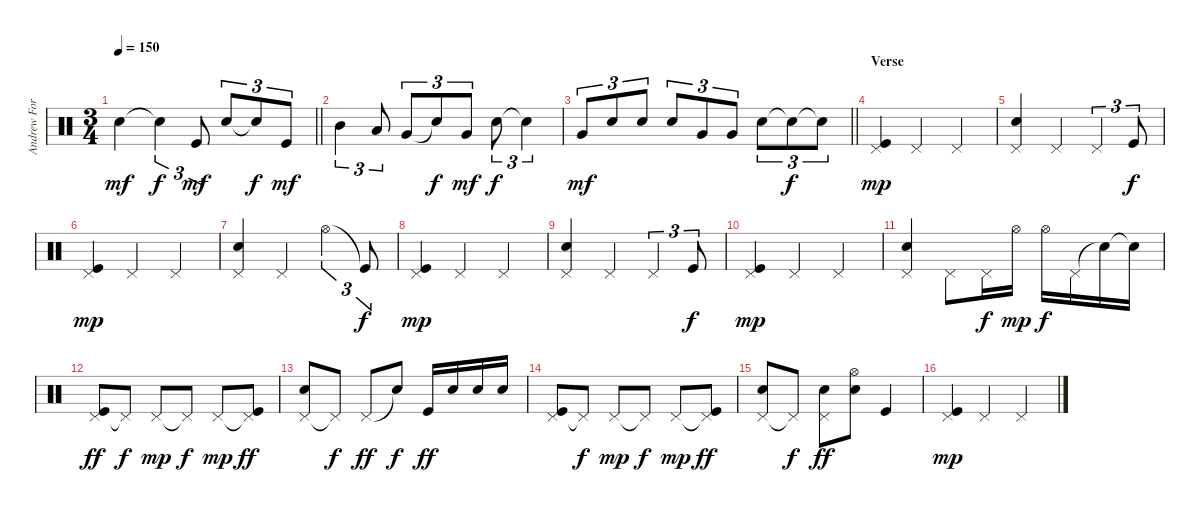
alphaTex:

\track ("Andrew Forsman" "Andrew For") {instrument percussion}
\staff {score}
\articulation defaults
\ts (3 4)
\tempo 150
\clef neutral
\barLineRight lightlight
\ks c "Electric Snare (hit)".4{dy mf} "Snare (hit)"{t}.4{tu (3 2) dy f} "Kick (hit)".8{tu (3 2) dy mf} "Electric Snare (hit)".8{tu (3 2)} "Snare (hit)"{t}.8{tu (3 2) dy f} "Kick (hit)".8{tu (3 2) dy mf}
|
"Mid Tom (hit)".4{tu (3 2)} "Low Tom (hit)".8{tu (3 2)} "Very Low Tom (hit)".8{tu (3 2)} "Snare (hit)"{t}.8{tu (3 2) dy f} "Very Low Tom (hit)".8{tu (3 2) dy mf} "Electric Snare (hit)".8{tu (3 2) dy f} "Snare (hit)"{t}.4{tu (3 2)} |
\barLineRight lightlight "Very Low Tom (hit)".8{tu (3 2) dy mf} "Electric Snare (hit)".8{tu (3 2)} "Electric Snare (hit)".8{tu (3 2)} "Electric Snare (hit)".8{tu (3 2)} "Very Low Tom (hit)".8{tu (3 2)} "Very Low Tom (hit)".8{tu (3 2)} "Electric Snare (hit)".8{tu (3 2)} "Snare (hit)"{t}.8{tu (3 2) dy f} "Snare (hit)"{t}.8{tu (3 2)}
|
\section ("" "Verse")
("Pedal Hi-Hat (hit)" "Kick (hit)").4{dy mp} "Pedal Hi-Hat (hit)".4 "Pedal Hi-Hat (hit)".4 |
("Pedal Hi-Hat (hit)" "Electric Snare (hit)").4 "Pedal Hi-Hat (hit)".4 "Pedal Hi-Hat (hit)".4{tu (3 2)} "Kick (hit)".8{tu (3 2) dy f} |
("Pedal Hi-Hat (hit)" "Kick (hit)").4{dy mp} "Pedal Hi-Hat (hit)".4 "Pedal Hi-Hat (hit)".4 |
("Pedal Hi-Hat (hit)" "Electric Snare (hit)").4 "Pedal Hi-Hat (hit)".4 "Hi-Hat (open)".4{tu (3 2)} "Kick (hit)"{t}.8{tu (3 2) dy f} |
("Pedal Hi-Hat (hit)" "Kick (hit)").4{dy mp} "Pedal Hi-Hat (hit)".4 "Pedal Hi-Hat (hit)".4 |
("Pedal Hi-Hat (hit)" "Electric Snare (hit)").4 "Pedal Hi-Hat (hit)".4 "Pedal Hi-Hat (hit)".4{tu (3 2)} "Kick (hit)".8{tu (3 2) dy f} |
("Pedal Hi-Hat (hit)" "Kick (hit)").4{dy mp} "Pedal Hi-Hat (hit)".4 "Pedal Hi-Hat (hit)".4 |
("Pedal Hi-Hat (hit)" "Electric Snare (hit)").4 "Pedal Hi-Hat (hit)".8 "Pedal Hi-Hat (hit)".16{dy f} "Hi-Hat (open)".16{dy mp} "Hi-Hat (open)".16{dy f} "Pedal Hi-Hat (hit)".16 "Snare (hit)"{t}.16 "Snare (hit)"{t}.16 |
("Pedal Hi-Hat (hit)" "Kick (hit)").8{dy ff} "Pedal Hi-Hat (hit)"{t}.8{dy f} "Pedal Hi-Hat (hit)".8{dy mp} "Pedal Hi-Hat (hit)"{t}.8{dy f} "Pedal Hi-Hat (hit)".8{dy mp} ("Pedal Hi-Hat (hit)"{t} "Kick (hit)").8{dy ff} |
("Pedal Hi-Hat (hit)" "Electric Snare (hit)").8 "Pedal Hi-Hat (hit)"{t}.8{dy f} "Pedal Hi-Hat (hit)".8{dy ff} "Snare (hit)"{t}.8{dy f} "Kick (hit)".16{dy ff} "Electric Snare (hit)".16 "Electric Snare (hit)".16 "Electric Snare (hit)".16 |
("Pedal Hi-Hat (hit)" "Kick (hit)").8 "Pedal Hi-Hat (hit)"{t}.8{dy f} "Pedal Hi-Hat (hit)".8{dy mp} "Pedal Hi-Hat (hit)"{t}.8{dy f} "Pedal Hi-Hat (hit)".8{dy mp} ("Pedal Hi-Hat (hit)"{t} "Kick (hit)").8{dy ff} |
("Pedal Hi-Hat (hit)" "Electric Snare (hit)").8 "Pedal Hi-Hat (hit)"{t}.8{dy f} ("Pedal Hi-Hat (hit)" "Electric Snare (hit)").8{dy ff} ("Hi-Hat (open)" "Electric Snare (hit)").8 "Kick (hit)".4 |
("Pedal Hi-Hat (hit)" "Kick (hit)").4{dy mp} "Pedal Hi-Hat (hit)".4 "Pedal Hi-Hat (hit)".4
